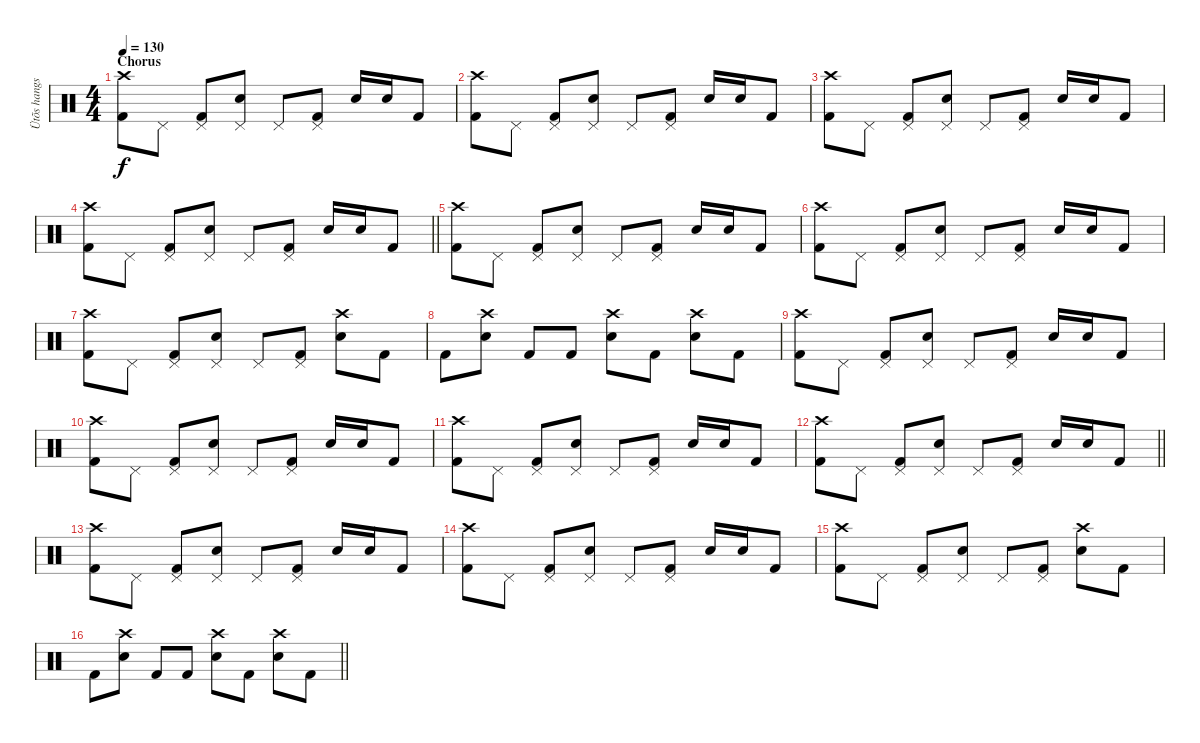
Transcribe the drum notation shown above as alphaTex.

\track ("Ütõs hangszer" "Ütõs hangs") {instrument percussion}
\staff {score}
\articulation defaults
\ts (4 4)
\section ("" "Chorus")
\tempo 130
\clef neutral
\ks c
("Crash high (hit)" "Kick (hit) 2").8{dy f} "Pedal Hi-Hat (hit)".8 ("Pedal Hi-Hat (hit)" "Kick (hit) 2").8 ("Pedal Hi-Hat (hit)" "Snare (hit) 2").8 "Pedal Hi-Hat (hit)".8 ("Pedal Hi-Hat (hit)" "Kick (hit) 2").8 "Snare (hit) 2".16 "Snare (hit) 2".16 "Kick (hit) 2".8 |
("Crash high (hit)" "Kick (hit) 2").8 "Pedal Hi-Hat (hit)".8 ("Pedal Hi-Hat (hit)" "Kick (hit) 2").8 ("Pedal Hi-Hat (hit)" "Snare (hit) 2").8 "Pedal Hi-Hat (hit)".8 ("Pedal Hi-Hat (hit)" "Kick (hit) 2").8 "Snare (hit) 2".16 "Snare (hit) 2".16 "Kick (hit) 2".8 |
("Crash high (hit)" "Kick (hit) 2").8 "Pedal Hi-Hat (hit)".8 ("Pedal Hi-Hat (hit)" "Kick (hit) 2").8 ("Pedal Hi-Hat (hit)" "Snare (hit) 2").8 "Pedal Hi-Hat (hit)".8 ("Pedal Hi-Hat (hit)" "Kick (hit) 2").8 "Snare (hit) 2".16 "Snare (hit) 2".16 "Kick (hit) 2".8 |
\barLineRight lightlight
("Crash high (hit)" "Kick (hit) 2").8 "Pedal Hi-Hat (hit)".8 ("Pedal Hi-Hat (hit)" "Kick (hit) 2").8 ("Pedal Hi-Hat (hit)" "Snare (hit) 2").8 "Pedal Hi-Hat (hit)".8 ("Pedal Hi-Hat (hit)" "Kick (hit) 2").8 "Snare (hit) 2".16 "Snare (hit) 2".16 "Kick (hit) 2".8 |
("Crash high (hit)" "Kick (hit) 2").8 "Pedal Hi-Hat (hit)".8 ("Pedal Hi-Hat (hit)" "Kick (hit) 2").8 ("Pedal Hi-Hat (hit)" "Snare (hit) 2").8 "Pedal Hi-Hat (hit)".8 ("Pedal Hi-Hat (hit)" "Kick (hit) 2").8 "Snare (hit) 2".16 "Snare (hit) 2".16 "Kick (hit) 2".8 |
("Crash high (hit)" "Kick (hit) 2").8 "Pedal Hi-Hat (hit)".8 ("Pedal Hi-Hat (hit)" "Kick (hit) 2").8 ("Pedal Hi-Hat (hit)" "Snare (hit) 2").8 "Pedal Hi-Hat (hit)".8 ("Pedal Hi-Hat (hit)" "Kick (hit) 2").8 "Snare (hit) 2".16 "Snare (hit) 2".16 "Kick (hit) 2".8 |
("Crash high (hit)" "Kick (hit) 2").8 "Pedal Hi-Hat (hit)".8 ("Pedal Hi-Hat (hit)" "Kick (hit) 2").8 ("Pedal Hi-Hat (hit)" "Snare (hit) 2").8 "Pedal Hi-Hat (hit)".8 ("Pedal Hi-Hat (hit)" "Kick (hit) 2").8 ("Crash high (hit)" "Snare (hit) 2").8 "Kick (hit) 2".8 |
"Kick (hit) 2".8 ("Crash high (hit)" "Snare (hit) 2").8 "Kick (hit) 2".8 "Kick (hit) 2".8 ("Crash high (hit)" "Snare (hit) 2").8 "Kick (hit) 2".8 ("Crash high (hit)" "Snare (hit) 2").8 "Kick (hit) 2".8 |
("Crash high (hit)" "Kick (hit) 2").8 "Pedal Hi-Hat (hit)".8 ("Pedal Hi-Hat (hit)" "Kick (hit) 2").8 ("Pedal Hi-Hat (hit)" "Snare (hit) 2").8 "Pedal Hi-Hat (hit)".8 ("Pedal Hi-Hat (hit)" "Kick (hit) 2").8 "Snare (hit) 2".16 "Snare (hit) 2".16 "Kick (hit) 2".8 |
("Crash high (hit)" "Kick (hit) 2").8 "Pedal Hi-Hat (hit)".8 ("Pedal Hi-Hat (hit)" "Kick (hit) 2").8 ("Pedal Hi-Hat (hit)" "Snare (hit) 2").8 "Pedal Hi-Hat (hit)".8 ("Pedal Hi-Hat (hit)" "Kick (hit) 2").8 "Snare (hit) 2".16 "Snare (hit) 2".16 "Kick (hit) 2".8 |
("Crash high (hit)" "Kick (hit) 2").8 "Pedal Hi-Hat (hit)".8 ("Pedal Hi-Hat (hit)" "Kick (hit) 2").8 ("Pedal Hi-Hat (hit)" "Snare (hit) 2").8 "Pedal Hi-Hat (hit)".8 ("Pedal Hi-Hat (hit)" "Kick (hit) 2").8 "Snare (hit) 2".16 "Snare (hit) 2".16 "Kick (hit) 2".8 |
\barLineRight lightlight
("Crash high (hit)" "Kick (hit) 2").8 "Pedal Hi-Hat (hit)".8 ("Pedal Hi-Hat (hit)" "Kick (hit) 2").8 ("Pedal Hi-Hat (hit)" "Snare (hit) 2").8 "Pedal Hi-Hat (hit)".8 ("Pedal Hi-Hat (hit)" "Kick (hit) 2").8 "Snare (hit) 2".16 "Snare (hit) 2".16 "Kick (hit) 2".8 |
("Crash high (hit)" "Kick (hit) 2").8 "Pedal Hi-Hat (hit)".8 ("Pedal Hi-Hat (hit)" "Kick (hit) 2").8 ("Pedal Hi-Hat (hit)" "Snare (hit) 2").8 "Pedal Hi-Hat (hit)".8 ("Pedal Hi-Hat (hit)" "Kick (hit) 2").8 "Snare (hit) 2".16 "Snare (hit) 2".16 "Kick (hit) 2".8 |
("Crash high (hit)" "Kick (hit) 2").8 "Pedal Hi-Hat (hit)".8 ("Pedal Hi-Hat (hit)" "Kick (hit) 2").8 ("Pedal Hi-Hat (hit)" "Snare (hit) 2").8 "Pedal Hi-Hat (hit)".8 ("Pedal Hi-Hat (hit)" "Kick (hit) 2").8 "Snare (hit) 2".16 "Snare (hit) 2".16 "Kick (hit) 2".8 |
("Crash high (hit)" "Kick (hit) 2").8 "Pedal Hi-Hat (hit)".8 ("Pedal Hi-Hat (hit)" "Kick (hit) 2").8 ("Pedal Hi-Hat (hit)" "Snare (hit) 2").8 "Pedal Hi-Hat (hit)".8 ("Pedal Hi-Hat (hit)" "Kick (hit) 2").8 ("Crash high (hit)" "Snare (hit) 2").8 "Kick (hit) 2".8 |
\barLineRight lightlight "Kick (hit) 2".8
("Crash high (hit)" "Snare (hit) 2").8 "Kick (hit) 2".8 "Kick (hit) 2".8 ("Crash high (hit)" "Snare (hit) 2").8 "Kick (hit) 2".8 ("Crash high (hit)" "Snare (hit) 2").8 "Kick (hit) 2".8
